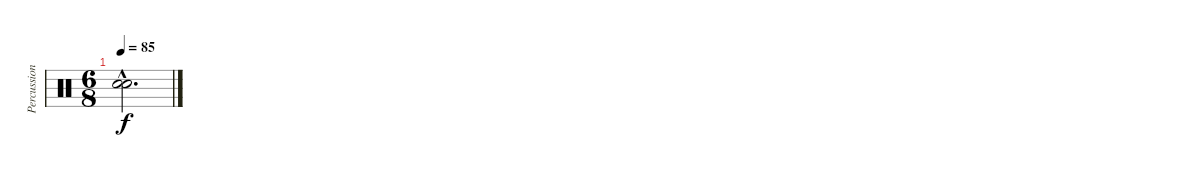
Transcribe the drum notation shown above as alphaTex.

\track ("Percussion" "Percussion") {instrument percussion}
\staff {score}
\articulation defaults
\ts (6 8)
\tempo 85
\clef neutral
\ks c
("Snare (hit)"{hac t} "Snare (hit)"{hac t}).2{d dy f}
